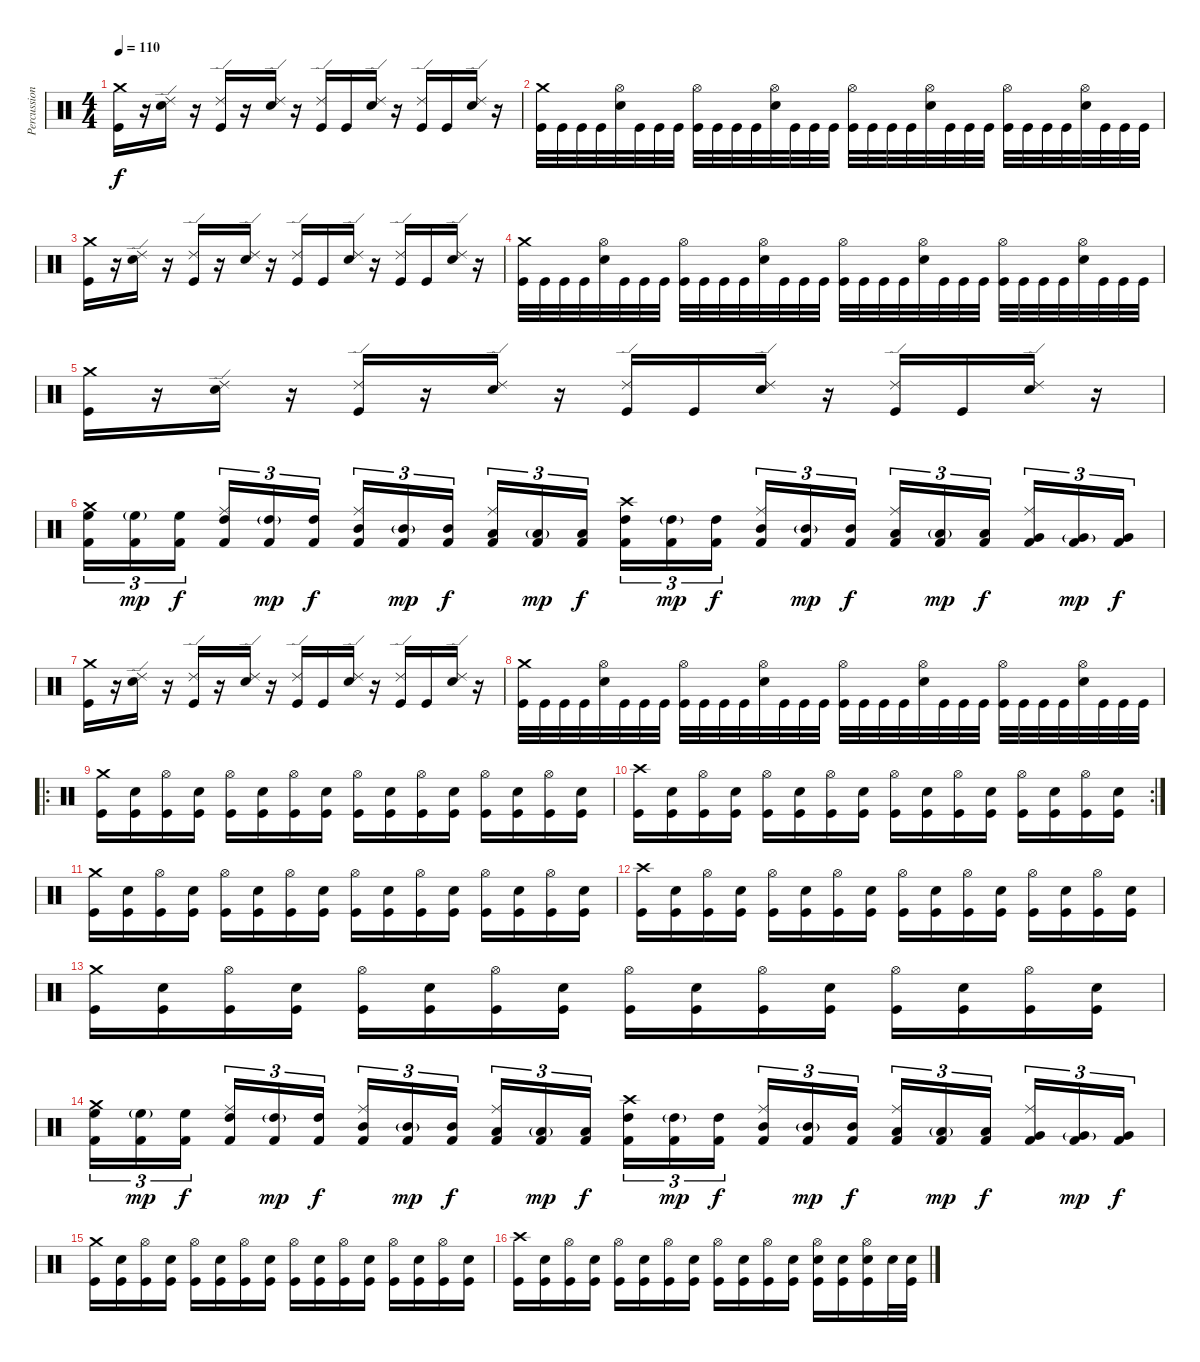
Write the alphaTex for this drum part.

\track ("Percussion" "Percussion") {instrument percussion}
\staff {score}
\articulation defaults
\ts (4 4)
\tempo 110
\clef neutral
\ks c
("Crash medium (hit)" "Kick (hit)").16{dy f} r.16 ("Ride (edge) 2" "Electric Snare (hit)").16 r.16 ("Ride (edge) 2" "Kick (hit)").16 r.16 ("Ride (edge) 2" "Electric Snare (hit)").16 r.16 ("Ride (edge) 2" "Kick (hit)").16 "Kick (hit)".16 ("Ride (edge) 2" "Electric Snare (hit)").16 r.16 ("Ride (edge) 2" "Kick (hit)").16 "Kick (hit)".16 ("Ride (edge) 2" "Electric Snare (hit)").16 r.16 |
("Crash medium (hit)" "Kick (hit)").32 "Kick (hit)".32 "Kick (hit)".32 "Kick (hit)".32 ("Hi-Hat (open)" "Electric Snare (hit)").32 "Kick (hit)".32 "Kick (hit)".32 "Kick (hit)".32 ("Hi-Hat (open)" "Kick (hit)").32 "Kick (hit)".32 "Kick (hit)".32 "Kick (hit)".32 ("Hi-Hat (open)" "Electric Snare (hit)").32 "Kick (hit)".32 "Kick (hit)".32 "Kick (hit)".32 ("Hi-Hat (open)" "Kick (hit)").32 "Kick (hit)".32 "Kick (hit)".32 "Kick (hit)".32 ("Hi-Hat (open)" "Electric Snare (hit)").32 "Kick (hit)".32 "Kick (hit)".32 "Kick (hit)".32 ("Hi-Hat (open)" "Kick (hit)").32 "Kick (hit)".32 "Kick (hit)".32 "Kick (hit)".32 ("Hi-Hat (open)" "Electric Snare (hit)").32 "Kick (hit)".32 "Kick (hit)".32 "Kick (hit)".32 |
("Crash medium (hit)" "Kick (hit)").16 r.16 ("Ride (edge) 2" "Electric Snare (hit)").16 r.16 ("Ride (edge) 2" "Kick (hit)").16 r.16 ("Ride (edge) 2" "Electric Snare (hit)").16 r.16 ("Ride (edge) 2" "Kick (hit)").16 "Kick (hit)".16 ("Ride (edge) 2" "Electric Snare (hit)").16 r.16 ("Ride (edge) 2" "Kick (hit)").16 "Kick (hit)".16 ("Ride (edge) 2" "Electric Snare (hit)").16 r.16 |
("Crash medium (hit)" "Kick (hit)").32 "Kick (hit)".32 "Kick (hit)".32 "Kick (hit)".32 ("Hi-Hat (open)" "Electric Snare (hit)").32 "Kick (hit)".32 "Kick (hit)".32 "Kick (hit)".32 ("Hi-Hat (open)" "Kick (hit)").32 "Kick (hit)".32 "Kick (hit)".32 "Kick (hit)".32 ("Hi-Hat (open)" "Electric Snare (hit)").32 "Kick (hit)".32 "Kick (hit)".32 "Kick (hit)".32 ("Hi-Hat (open)" "Kick (hit)").32 "Kick (hit)".32 "Kick (hit)".32 "Kick (hit)".32 ("Hi-Hat (open)" "Electric Snare (hit)").32 "Kick (hit)".32 "Kick (hit)".32 "Kick (hit)".32 ("Hi-Hat (open)" "Kick (hit)").32 "Kick (hit)".32 "Kick (hit)".32 "Kick (hit)".32 ("Hi-Hat (open)" "Electric Snare (hit)").32 "Kick (hit)".32 "Kick (hit)".32 "Kick (hit)".32 |
("Crash medium (hit)" "Kick (hit)").16 r.16 ("Ride (edge) 2" "Electric Snare (hit)").16 r.16 ("Ride (edge) 2" "Kick (hit)").16 r.16 ("Ride (edge) 2" "Electric Snare (hit)").16 r.16 ("Ride (edge) 2" "Kick (hit)").16 "Kick (hit)".16 ("Ride (edge) 2" "Electric Snare (hit)").16 r.16 ("Ride (edge) 2" "Kick (hit)").16 "Kick (hit)".16 ("Ride (edge) 2" "Electric Snare (hit)").16 r.16 |
("Crash medium (hit)" "High Floor Tom (hit)" "Kick (hit) 2").16{tu (3 2)} ("High Floor Tom (hit)"{g} "Kick (hit) 2").16{tu (3 2) dy mp} ("High Floor Tom (hit)" "Kick (hit) 2").16{tu (3 2) dy f} ("Ride (middle)" "High Tom (hit)" "Kick (hit) 2").16{tu (3 2)} ("High Tom (hit)"{g} "Kick (hit) 2").16{tu (3 2) dy mp} ("High Tom (hit)" "Kick (hit) 2").16{tu (3 2) dy f} ("Ride (middle)" "Mid Tom (hit)" "Kick (hit) 2").16{tu (3 2)} ("Mid Tom (hit)"{g} "Kick (hit) 2").16{tu (3 2) dy mp} ("Mid Tom (hit)" "Kick (hit) 2").16{tu (3 2) dy f} ("Ride (middle)" "Low Tom (hit)" "Kick (hit) 2").16{tu (3 2)} ("Low Tom (hit)"{g} "Kick (hit) 2").16{tu (3 2) dy mp} ("Low Tom (hit)" "Kick (hit) 2").16{tu (3 2) dy f} ("Crash high (hit)" "High Tom (hit)" "Kick (hit) 2").16{tu (3 2)} ("High Tom (hit)"{g} "Kick (hit) 2").16{tu (3 2) dy mp} ("High Tom (hit)" "Kick (hit) 2").16{tu (3 2) dy f} ("Ride (middle)" "Mid Tom (hit)" "Kick (hit) 2").16{tu (3 2)} ("Mid Tom (hit)"{g} "Kick (hit) 2").16{tu (3 2) dy mp} ("Mid Tom (hit)" "Kick (hit) 2").16{tu (3 2) dy f} ("Ride (middle)" "Low Tom (hit)" "Kick (hit) 2").16{tu (3 2)} ("Low Tom (hit)"{g} "Kick (hit) 2").16{tu (3 2) dy mp} ("Low Tom (hit)" "Kick (hit) 2").16{tu (3 2) dy f} ("Ride (middle)" "Very Low Tom (hit)" "Kick (hit) 2").16{tu (3 2)} ("Very Low Tom (hit)"{g} "Kick (hit) 2").16{tu (3 2) dy mp} ("Very Low Tom (hit)" "Kick (hit) 2").16{tu (3 2) dy f} |
("Crash medium (hit)" "Kick (hit)").16 r.16 ("Ride (edge) 2" "Electric Snare (hit)").16 r.16 ("Ride (edge) 2" "Kick (hit)").16 r.16 ("Ride (edge) 2" "Electric Snare (hit)").16 r.16 ("Ride (edge) 2" "Kick (hit)").16 "Kick (hit)".16 ("Ride (edge) 2" "Electric Snare (hit)").16 r.16 ("Ride (edge) 2" "Kick (hit)").16 "Kick (hit)".16 ("Ride (edge) 2" "Electric Snare (hit)").16 r.16 |
("Crash medium (hit)" "Kick (hit)").32 "Kick (hit)".32 "Kick (hit)".32 "Kick (hit)".32 ("Hi-Hat (open)" "Electric Snare (hit)").32 "Kick (hit)".32 "Kick (hit)".32 "Kick (hit)".32 ("Hi-Hat (open)" "Kick (hit)").32 "Kick (hit)".32 "Kick (hit)".32 "Kick (hit)".32 ("Hi-Hat (open)" "Electric Snare (hit)").32 "Kick (hit)".32 "Kick (hit)".32 "Kick (hit)".32 ("Hi-Hat (open)" "Kick (hit)").32 "Kick (hit)".32 "Kick (hit)".32 "Kick (hit)".32 ("Hi-Hat (open)" "Electric Snare (hit)").32 "Kick (hit)".32 "Kick (hit)".32 "Kick (hit)".32 ("Hi-Hat (open)" "Kick (hit)").32 "Kick (hit)".32 "Kick (hit)".32 "Kick (hit)".32 ("Hi-Hat (open)" "Electric Snare (hit)").32 "Kick (hit)".32 "Kick (hit)".32 "Kick (hit)".32 |
\ro
("Crash medium (hit)" "Kick (hit)").16 ("Electric Snare (hit)" "Kick (hit)").16 ("Hi-Hat (open)" "Kick (hit)").16 ("Electric Snare (hit)" "Kick (hit)").16 ("Hi-Hat (open)" "Kick (hit)").16 ("Electric Snare (hit)" "Kick (hit)").16 ("Hi-Hat (open)" "Kick (hit)").16 ("Electric Snare (hit)" "Kick (hit)").16 ("Hi-Hat (open)" "Kick (hit)").16 ("Electric Snare (hit)" "Kick (hit)").16 ("Hi-Hat (open)" "Kick (hit)").16 ("Electric Snare (hit)" "Kick (hit)").16 ("Hi-Hat (open)" "Kick (hit)").16 ("Electric Snare (hit)" "Kick (hit)").16 ("Hi-Hat (open)" "Kick (hit)").16 ("Electric Snare (hit)" "Kick (hit)").16 |
\rc 2
("Crash high (hit)" "Kick (hit)").16 ("Electric Snare (hit)" "Kick (hit)").16 ("Hi-Hat (open)" "Kick (hit)").16 ("Electric Snare (hit)" "Kick (hit)").16 ("Hi-Hat (open)" "Kick (hit)").16 ("Electric Snare (hit)" "Kick (hit)").16 ("Hi-Hat (open)" "Kick (hit)").16 ("Electric Snare (hit)" "Kick (hit)").16 ("Hi-Hat (open)" "Kick (hit)").16 ("Electric Snare (hit)" "Kick (hit)").16 ("Hi-Hat (open)" "Kick (hit)").16 ("Electric Snare (hit)" "Kick (hit)").16 ("Hi-Hat (open)" "Kick (hit)").16 ("Electric Snare (hit)" "Kick (hit)").16 ("Hi-Hat (open)" "Kick (hit)").16 ("Electric Snare (hit)" "Kick (hit)").16 |
("Crash medium (hit)" "Kick (hit)").16 ("Electric Snare (hit)" "Kick (hit)").16 ("Hi-Hat (open)" "Kick (hit)").16 ("Electric Snare (hit)" "Kick (hit)").16 ("Hi-Hat (open)" "Kick (hit)").16 ("Electric Snare (hit)" "Kick (hit)").16 ("Hi-Hat (open)" "Kick (hit)").16 ("Electric Snare (hit)" "Kick (hit)").16 ("Hi-Hat (open)" "Kick (hit)").16 ("Electric Snare (hit)" "Kick (hit)").16 ("Hi-Hat (open)" "Kick (hit)").16 ("Electric Snare (hit)" "Kick (hit)").16 ("Hi-Hat (open)" "Kick (hit)").16 ("Electric Snare (hit)" "Kick (hit)").16 ("Hi-Hat (open)" "Kick (hit)").16 ("Electric Snare (hit)" "Kick (hit)").16 |
("Crash high (hit)" "Kick (hit)").16 ("Electric Snare (hit)" "Kick (hit)").16 ("Hi-Hat (open)" "Kick (hit)").16 ("Electric Snare (hit)" "Kick (hit)").16 ("Hi-Hat (open)" "Kick (hit)").16 ("Electric Snare (hit)" "Kick (hit)").16 ("Hi-Hat (open)" "Kick (hit)").16 ("Electric Snare (hit)" "Kick (hit)").16 ("Hi-Hat (open)" "Kick (hit)").16 ("Electric Snare (hit)" "Kick (hit)").16 ("Hi-Hat (open)" "Kick (hit)").16 ("Electric Snare (hit)" "Kick (hit)").16 ("Hi-Hat (open)" "Kick (hit)").16 ("Electric Snare (hit)" "Kick (hit)").16 ("Hi-Hat (open)" "Kick (hit)").16 ("Electric Snare (hit)" "Kick (hit)").16 |
("Crash medium (hit)" "Kick (hit)").16 ("Electric Snare (hit)" "Kick (hit)").16 ("Hi-Hat (open)" "Kick (hit)").16 ("Electric Snare (hit)" "Kick (hit)").16 ("Hi-Hat (open)" "Kick (hit)").16 ("Electric Snare (hit)" "Kick (hit)").16 ("Hi-Hat (open)" "Kick (hit)").16 ("Electric Snare (hit)" "Kick (hit)").16 ("Hi-Hat (open)" "Kick (hit)").16 ("Electric Snare (hit)" "Kick (hit)").16 ("Hi-Hat (open)" "Kick (hit)").16 ("Electric Snare (hit)" "Kick (hit)").16 ("Hi-Hat (open)" "Kick (hit)").16 ("Electric Snare (hit)" "Kick (hit)").16 ("Hi-Hat (open)" "Kick (hit)").16 ("Electric Snare (hit)" "Kick (hit)").16 |
("Crash medium (hit)" "High Floor Tom (hit)" "Kick (hit) 2").16{tu (3 2)} ("High Floor Tom (hit)"{g} "Kick (hit) 2").16{tu (3 2) dy mp} ("High Floor Tom (hit)" "Kick (hit) 2").16{tu (3 2) dy f} ("Ride (middle)" "High Tom (hit)" "Kick (hit) 2").16{tu (3 2)} ("High Tom (hit)"{g} "Kick (hit) 2").16{tu (3 2) dy mp} ("High Tom (hit)" "Kick (hit) 2").16{tu (3 2) dy f} ("Ride (middle)" "Mid Tom (hit)" "Kick (hit) 2").16{tu (3 2)} ("Mid Tom (hit)"{g} "Kick (hit) 2").16{tu (3 2) dy mp} ("Mid Tom (hit)" "Kick (hit) 2").16{tu (3 2) dy f} ("Ride (middle)" "Low Tom (hit)" "Kick (hit) 2").16{tu (3 2)} ("Low Tom (hit)"{g} "Kick (hit) 2").16{tu (3 2) dy mp} ("Low Tom (hit)" "Kick (hit) 2").16{tu (3 2) dy f} ("Crash high (hit)" "High Tom (hit)" "Kick (hit) 2").16{tu (3 2)} ("High Tom (hit)"{g} "Kick (hit) 2").16{tu (3 2) dy mp} ("High Tom (hit)" "Kick (hit) 2").16{tu (3 2) dy f} ("Ride (middle)" "Mid Tom (hit)" "Kick (hit) 2").16{tu (3 2)} ("Mid Tom (hit)"{g} "Kick (hit) 2").16{tu (3 2) dy mp} ("Mid Tom (hit)" "Kick (hit) 2").16{tu (3 2) dy f} ("Ride (middle)" "Low Tom (hit)" "Kick (hit) 2").16{tu (3 2)} ("Low Tom (hit)"{g} "Kick (hit) 2").16{tu (3 2) dy mp} ("Low Tom (hit)" "Kick (hit) 2").16{tu (3 2) dy f} ("Ride (middle)" "Very Low Tom (hit)" "Kick (hit) 2").16{tu (3 2)} ("Very Low Tom (hit)"{g} "Kick (hit) 2").16{tu (3 2) dy mp} ("Very Low Tom (hit)" "Kick (hit) 2").16{tu (3 2) dy f} |
("Crash medium (hit)" "Kick (hit)").16 ("Electric Snare (hit)" "Kick (hit)").16 ("Hi-Hat (open)" "Kick (hit)").16 ("Electric Snare (hit)" "Kick (hit)").16 ("Hi-Hat (open)" "Kick (hit)").16 ("Electric Snare (hit)" "Kick (hit)").16 ("Hi-Hat (open)" "Kick (hit)").16 ("Electric Snare (hit)" "Kick (hit)").16 ("Hi-Hat (open)" "Kick (hit)").16 ("Electric Snare (hit)" "Kick (hit)").16 ("Hi-Hat (open)" "Kick (hit)").16 ("Electric Snare (hit)" "Kick (hit)").16 ("Hi-Hat (open)" "Kick (hit)").16 ("Electric Snare (hit)" "Kick (hit)").16 ("Hi-Hat (open)" "Kick (hit)").16 ("Electric Snare (hit)" "Kick (hit)").16 |
("Crash high (hit)" "Kick (hit)").16 ("Electric Snare (hit)" "Kick (hit)").16 ("Hi-Hat (open)" "Kick (hit)").16 ("Electric Snare (hit)" "Kick (hit)").16 ("Hi-Hat (open)" "Kick (hit)").16 ("Electric Snare (hit)" "Kick (hit)").16 ("Hi-Hat (open)" "Kick (hit)").16 ("Electric Snare (hit)" "Kick (hit)").16 ("Hi-Hat (open)" "Kick (hit)").16 ("Electric Snare (hit)" "Kick (hit)").16 ("Hi-Hat (open)" "Kick (hit)").16 ("Electric Snare (hit)" "Kick (hit)").16 ("Hi-Hat (open)" "Electric Snare (hit)" "Kick (hit)").16 ("Electric Snare (hit)" "Kick (hit)").16 ("Hi-Hat (open)" "Electric Snare (hit)" "Kick (hit)").16 "Electric Snare (hit)".32 ("Electric Snare (hit)" "Kick (hit)").32
